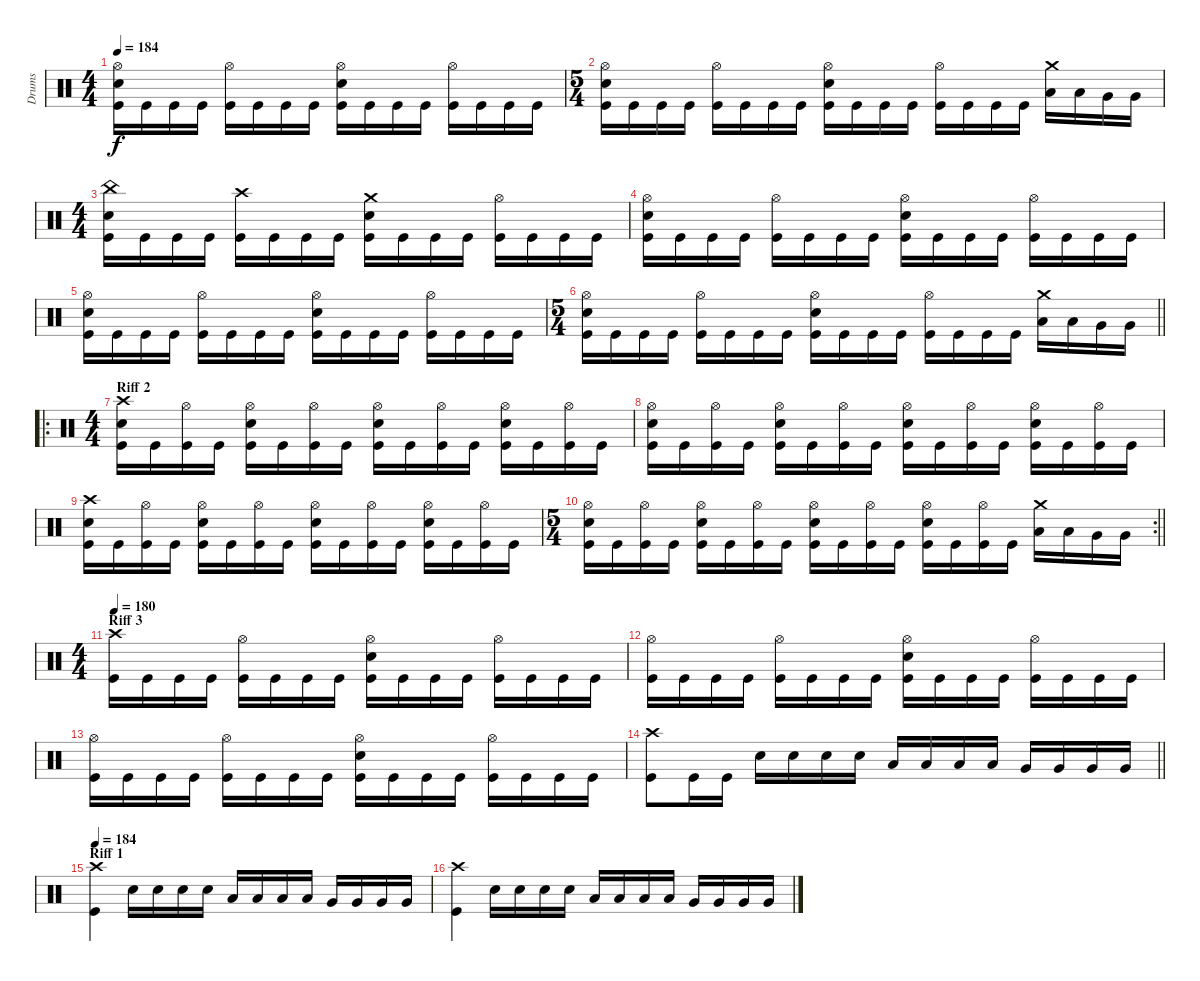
\track ("Drums" "Drums") {instrument percussion}
\staff {score}
\articulation defaults
\ts (4 4)
\tempo 184
\clef neutral
\ks c
("Hi-Hat (open)" "Snare (hit) 2" "Kick (hit)").16{dy f} "Kick (hit)".16 "Kick (hit)".16 "Kick (hit)".16 ("Hi-Hat (open)" "Kick (hit)").16 "Kick (hit)".16 "Kick (hit)".16 "Kick (hit)".16 ("Hi-Hat (open)" "Snare (hit) 2" "Kick (hit)").16 "Kick (hit)".16 "Kick (hit)".16 "Kick (hit)".16 ("Hi-Hat (open)" "Kick (hit)").16 "Kick (hit)".16 "Kick (hit)".16 "Kick (hit)".16 |
\ts (5 4)
("Hi-Hat (open)" "Snare (hit) 2" "Kick (hit)").16 "Kick (hit)".16 "Kick (hit)".16 "Kick (hit)".16 ("Hi-Hat (open)" "Kick (hit)").16 "Kick (hit)".16 "Kick (hit)".16 "Kick (hit)".16 ("Hi-Hat (open)" "Snare (hit) 2" "Kick (hit)").16 "Kick (hit)".16 "Kick (hit)".16 "Kick (hit)".16 ("Hi-Hat (open)" "Kick (hit)").16 "Kick (hit)".16 "Kick (hit)".16 "Kick (hit)".16 ("Crash medium (hit)" "Low Tom (hit)").16 "Low Tom (hit)".16 "Very Low Tom (hit)".16 "Very Low Tom (hit)".16 |
\ts (4 4)
("China (hit)" "Snare (hit) 2" "Kick (hit)").16 "Kick (hit)".16 "Kick (hit)".16 "Kick (hit)".16 ("Crash high (hit)" "Kick (hit)").16 "Kick (hit)".16 "Kick (hit)".16 "Kick (hit)".16 ("Crash medium (hit)" "Snare (hit) 2" "Kick (hit)").16 "Kick (hit)".16 "Kick (hit)".16 "Kick (hit)".16 ("Hi-Hat (open)" "Kick (hit)").16 "Kick (hit)".16 "Kick (hit)".16 "Kick (hit)".16 |
("Hi-Hat (open)" "Snare (hit) 2" "Kick (hit)").16 "Kick (hit)".16 "Kick (hit)".16 "Kick (hit)".16 ("Hi-Hat (open)" "Kick (hit)").16 "Kick (hit)".16 "Kick (hit)".16 "Kick (hit)".16 ("Hi-Hat (open)" "Snare (hit) 2" "Kick (hit)").16 "Kick (hit)".16 "Kick (hit)".16 "Kick (hit)".16 ("Hi-Hat (open)" "Kick (hit)").16 "Kick (hit)".16 "Kick (hit)".16 "Kick (hit)".16 |
("Hi-Hat (open)" "Snare (hit) 2" "Kick (hit)").16 "Kick (hit)".16 "Kick (hit)".16 "Kick (hit)".16 ("Hi-Hat (open)" "Kick (hit)").16 "Kick (hit)".16 "Kick (hit)".16 "Kick (hit)".16 ("Hi-Hat (open)" "Snare (hit) 2" "Kick (hit)").16 "Kick (hit)".16 "Kick (hit)".16 "Kick (hit)".16 ("Hi-Hat (open)" "Kick (hit)").16 "Kick (hit)".16 "Kick (hit)".16 "Kick (hit)".16 |
\ts (5 4)
\barLineRight lightlight
("Hi-Hat (open)" "Snare (hit) 2" "Kick (hit)").16 "Kick (hit)".16 "Kick (hit)".16 "Kick (hit)".16 ("Hi-Hat (open)" "Kick (hit)").16 "Kick (hit)".16 "Kick (hit)".16 "Kick (hit)".16 ("Hi-Hat (open)" "Snare (hit) 2" "Kick (hit)").16 "Kick (hit)".16 "Kick (hit)".16 "Kick (hit)".16 ("Hi-Hat (open)" "Kick (hit)").16 "Kick (hit)".16 "Kick (hit)".16 "Kick (hit)".16 ("Crash medium (hit)" "Low Tom (hit)").16 "Low Tom (hit)".16 "Very Low Tom (hit)".16 "Very Low Tom (hit)".16 |
\ro
\ts (4 4)
\section ("" "Riff 2")
("Crash high (hit)" "Snare (hit) 2" "Kick (hit)").16 "Kick (hit)".16 ("Hi-Hat (open)" "Kick (hit)").16 "Kick (hit)".16 ("Hi-Hat (open)" "Snare (hit) 2" "Kick (hit)").16 "Kick (hit)".16 ("Hi-Hat (open)" "Kick (hit)").16 "Kick (hit)".16 ("Hi-Hat (open)" "Snare (hit) 2" "Kick (hit)").16 "Kick (hit)".16 ("Hi-Hat (open)" "Kick (hit)").16 "Kick (hit)".16 ("Hi-Hat (open)" "Snare (hit) 2" "Kick (hit)").16 "Kick (hit)".16 ("Hi-Hat (open)" "Kick (hit)").16 "Kick (hit)".16 |
("Hi-Hat (open)" "Snare (hit) 2" "Kick (hit)").16 "Kick (hit)".16 ("Hi-Hat (open)" "Kick (hit)").16 "Kick (hit)".16 ("Hi-Hat (open)" "Snare (hit) 2" "Kick (hit)").16 "Kick (hit)".16 ("Hi-Hat (open)" "Kick (hit)").16 "Kick (hit)".16 ("Hi-Hat (open)" "Snare (hit) 2" "Kick (hit)").16 "Kick (hit)".16 ("Hi-Hat (open)" "Kick (hit)").16 "Kick (hit)".16 ("Hi-Hat (open)" "Snare (hit) 2" "Kick (hit)").16 "Kick (hit)".16 ("Hi-Hat (open)" "Kick (hit)").16 "Kick (hit)".16 |
("Crash high (hit)" "Snare (hit) 2" "Kick (hit)").16 "Kick (hit)".16 ("Hi-Hat (open)" "Kick (hit)").16 "Kick (hit)".16 ("Hi-Hat (open)" "Snare (hit) 2" "Kick (hit)").16 "Kick (hit)".16 ("Hi-Hat (open)" "Kick (hit)").16 "Kick (hit)".16 ("Hi-Hat (open)" "Snare (hit) 2" "Kick (hit)").16 "Kick (hit)".16 ("Hi-Hat (open)" "Kick (hit)").16 "Kick (hit)".16 ("Hi-Hat (open)" "Snare (hit) 2" "Kick (hit)").16 "Kick (hit)".16 ("Hi-Hat (open)" "Kick (hit)").16 "Kick (hit)".16 |
\rc 2
\ts (5 4)
\barLineRight lightlight
("Hi-Hat (open)" "Snare (hit) 2" "Kick (hit)").16 "Kick (hit)".16 ("Hi-Hat (open)" "Kick (hit)").16 "Kick (hit)".16 ("Hi-Hat (open)" "Snare (hit) 2" "Kick (hit)").16 "Kick (hit)".16 ("Hi-Hat (open)" "Kick (hit)").16 "Kick (hit)".16 ("Hi-Hat (open)" "Snare (hit) 2" "Kick (hit)").16 "Kick (hit)".16 ("Hi-Hat (open)" "Kick (hit)").16 "Kick (hit)".16 ("Hi-Hat (open)" "Snare (hit) 2" "Kick (hit)").16 "Kick (hit)".16 ("Hi-Hat (open)" "Kick (hit)").16 "Kick (hit)".16 ("Crash medium (hit)" "Low Tom (hit)").16 "Low Tom (hit)".16 "Very Low Tom (hit)".16 "Very Low Tom (hit)".16 |
\ts (4 4)
\section ("" "Riff 3")
\tempo 180
("Crash high (hit)" "Kick (hit)").16 "Kick (hit)".16 "Kick (hit)".16 "Kick (hit)".16 ("Hi-Hat (open)" "Kick (hit)").16 "Kick (hit)".16 "Kick (hit)".16 "Kick (hit)".16 ("Hi-Hat (open)" "Snare (hit) 2" "Kick (hit)").16 "Kick (hit)".16 "Kick (hit)".16 "Kick (hit)".16 ("Hi-Hat (open)" "Kick (hit)").16 "Kick (hit)".16 "Kick (hit)".16 "Kick (hit)".16 |
("Hi-Hat (open)" "Kick (hit)").16 "Kick (hit)".16 "Kick (hit)".16 "Kick (hit)".16 ("Hi-Hat (open)" "Kick (hit)").16 "Kick (hit)".16 "Kick (hit)".16 "Kick (hit)".16 ("Hi-Hat (open)" "Snare (hit) 2" "Kick (hit)").16 "Kick (hit)".16 "Kick (hit)".16 "Kick (hit)".16 ("Hi-Hat (open)" "Kick (hit)").16 "Kick (hit)".16 "Kick (hit)".16 "Kick (hit)".16 |
("Hi-Hat (open)" "Kick (hit)").16 "Kick (hit)".16 "Kick (hit)".16 "Kick (hit)".16 ("Hi-Hat (open)" "Kick (hit)").16 "Kick (hit)".16 "Kick (hit)".16 "Kick (hit)".16 ("Hi-Hat (open)" "Snare (hit) 2" "Kick (hit)").16 "Kick (hit)".16 "Kick (hit)".16 "Kick (hit)".16 ("Hi-Hat (open)" "Kick (hit)").16 "Kick (hit)".16 "Kick (hit)".16 "Kick (hit)".16 |
\barLineRight lightlight
("Crash high (hit)" "Kick (hit)").8 "Kick (hit)".16 "Kick (hit)".16 "Snare (hit) 2".16 "Snare (hit) 2".16 "Snare (hit) 2".16 "Snare (hit) 2".16 "Low Tom (hit)".16 "Low Tom (hit)".16 "Low Tom (hit)".16 "Low Tom (hit)".16 "Very Low Tom (hit)".16 "Very Low Tom (hit)".16 "Very Low Tom (hit)".16 "Very Low Tom (hit)".16 |
\section ("" "Riff 1")
\tempo 184
("Crash high (hit)" "Kick (hit)").4 "Snare (hit) 2".16 "Snare (hit) 2".16 "Snare (hit) 2".16 "Snare (hit) 2".16 "Low Tom (hit)".16 "Low Tom (hit)".16 "Low Tom (hit)".16 "Low Tom (hit)".16 "Very Low Tom (hit)".16 "Very Low Tom (hit)".16 "Very Low Tom (hit)".16 "Very Low Tom (hit)".16 |
("Crash high (hit)" "Kick (hit)").4 "Snare (hit) 2".16 "Snare (hit) 2".16 "Snare (hit) 2".16 "Snare (hit) 2".16 "Low Tom (hit)".16 "Low Tom (hit)".16 "Low Tom (hit)".16 "Low Tom (hit)".16 "Very Low Tom (hit)".16 "Very Low Tom (hit)".16 "Very Low Tom (hit)".16 "Very Low Tom (hit)".16
